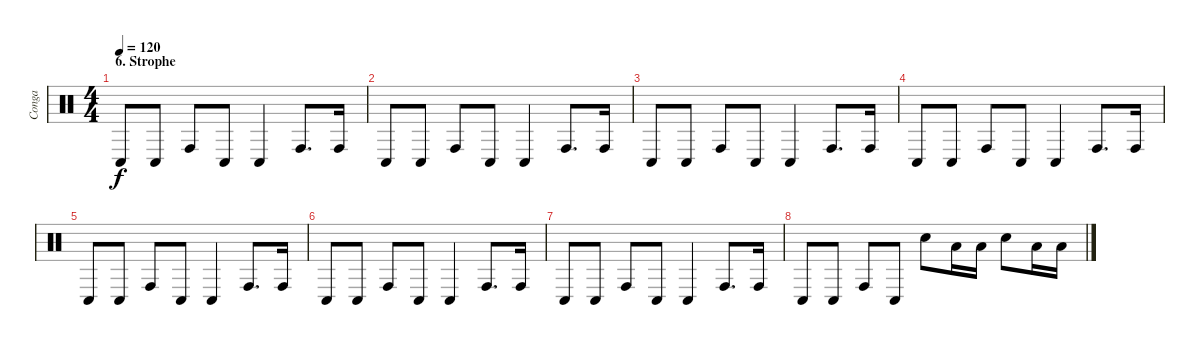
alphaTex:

\track ("Conga" "Conga") {instrument percussion}
\staff {score}
\articulation defaults
\ts (4 4)
\section ("" "6. Strophe")
\tempo 120
\clef neutral
\ks c "Conga low (hit)".8{dy f} "Conga low (hit)".8 "Conga high (hit)".8 "Conga low (hit)".8 "Conga low (hit)".4 "Conga high (hit)".8{d} "Conga high (hit)".16
|
"Conga low (hit)".8 "Conga low (hit)".8 "Conga high (hit)".8 "Conga low (hit)".8 "Conga low (hit)".4 "Conga high (hit)".8{d} "Conga high (hit)".16 |
"Conga low (hit)".8 "Conga low (hit)".8 "Conga high (hit)".8 "Conga low (hit)".8 "Conga low (hit)".4 "Conga high (hit)".8{d} "Conga high (hit)".16 |
"Conga low (hit)".8 "Conga low (hit)".8 "Conga high (hit)".8 "Conga low (hit)".8 "Conga low (hit)".4 "Conga high (hit)".8{d} "Conga high (hit)".16 |
"Conga low (hit)".8 "Conga low (hit)".8 "Conga high (hit)".8 "Conga low (hit)".8 "Conga low (hit)".4 "Conga high (hit)".8{d} "Conga high (hit)".16 |
"Conga low (hit)".8 "Conga low (hit)".8 "Conga high (hit)".8 "Conga low (hit)".8 "Conga low (hit)".4 "Conga high (hit)".8{d} "Conga high (hit)".16 |
"Conga low (hit)".8 "Conga low (hit)".8 "Conga high (hit)".8 "Conga low (hit)".8 "Conga low (hit)".4 "Conga high (hit)".8{d} "Conga high (hit)".16 |
"Conga low (hit)".8 "Conga low (hit)".8 "Conga high (hit)".8 "Conga low (hit)".8 "Snare (hit) 2".8 "Low Tom (hit)".16 "Low Tom (hit)".16 "Snare (hit) 2".8 "Low Tom (hit)".16 "Low Tom (hit)".16
